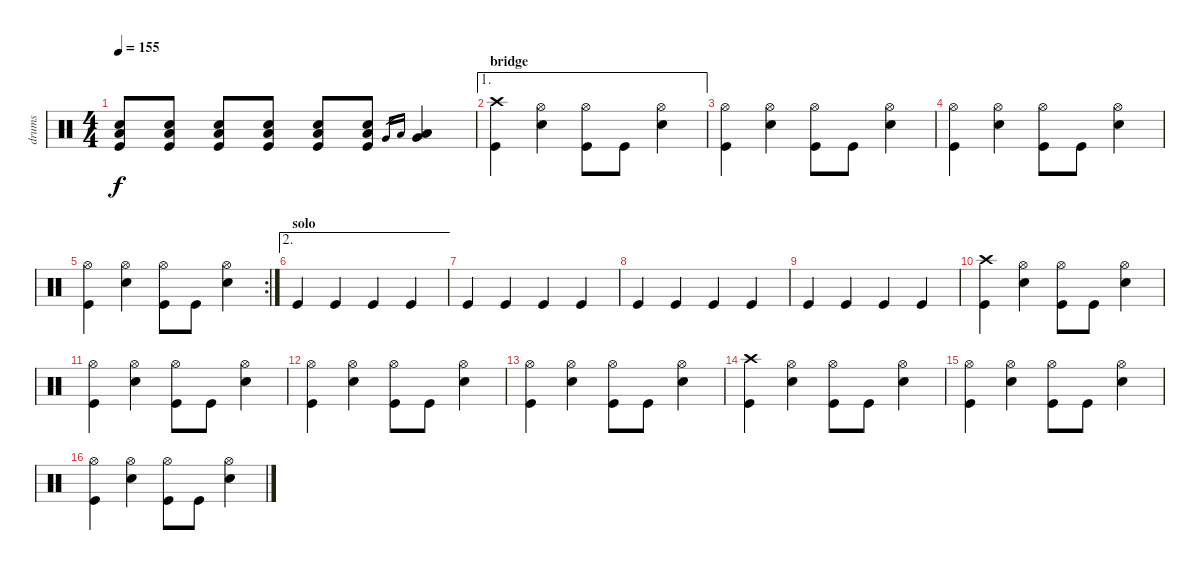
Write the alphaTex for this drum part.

\track ("drums" "drums") {instrument percussion}
\staff {score}
\articulation defaults
\ts (4 4)
\tempo 155
\clef neutral
\ks c
("Snare (hit) 2" "Low Floor Tom (hit)" "Kick (hit)").8{dy f} ("Snare (hit) 2" "Low Floor Tom (hit)" "Kick (hit)").8 ("Snare (hit) 2" "Low Floor Tom (hit)" "Kick (hit)").8 ("Snare (hit) 2" "Low Floor Tom (hit)" "Kick (hit)").8 ("Snare (hit) 2" "Low Floor Tom (hit)" "Kick (hit)").8 ("Snare (hit) 2" "Low Floor Tom (hit)" "Kick (hit)").8 "Very Low Tom (hit)".16{gr} "Low Floor Tom (hit)".16{gr} ("Very Low Tom (hit)" "Low Floor Tom (hit)").4 |
\ae 1
\section ("" "bridge")
("Crash high (hit)" "Kick (hit)").4 ("Hi-Hat (open)" "Snare (hit) 2").4 ("Hi-Hat (open)" "Kick (hit)").8 "Kick (hit)".8 ("Hi-Hat (open)" "Snare (hit) 2").4 |
("Hi-Hat (open)" "Kick (hit)").4 ("Hi-Hat (open)" "Snare (hit) 2").4 ("Hi-Hat (open)" "Kick (hit)").8 "Kick (hit)".8 ("Hi-Hat (open)" "Snare (hit) 2").4 |
("Hi-Hat (open)" "Kick (hit)").4 ("Hi-Hat (open)" "Snare (hit) 2").4 ("Hi-Hat (open)" "Kick (hit)").8 "Kick (hit)".8 ("Hi-Hat (open)" "Snare (hit) 2").4 |
\rc 2
("Hi-Hat (open)" "Kick (hit)").4 ("Hi-Hat (open)" "Snare (hit) 2").4 ("Hi-Hat (open)" "Kick (hit)").8 "Kick (hit)".8 ("Hi-Hat (open)" "Snare (hit) 2").4 |
\ae 2
\section ("" "solo")
"Kick (hit)".4 "Kick (hit)".4 "Kick (hit)".4 "Kick (hit)".4 |
"Kick (hit)".4 "Kick (hit)".4 "Kick (hit)".4 "Kick (hit)".4 |
"Kick (hit)".4 "Kick (hit)".4 "Kick (hit)".4 "Kick (hit)".4 |
"Kick (hit)".4 "Kick (hit)".4 "Kick (hit)".4 "Kick (hit)".4 |
("Crash high (hit)" "Kick (hit)").4 ("Hi-Hat (open)" "Snare (hit) 2").4 ("Hi-Hat (open)" "Kick (hit)").8 "Kick (hit)".8 ("Hi-Hat (open)" "Snare (hit) 2").4 |
("Hi-Hat (open)" "Kick (hit)").4 ("Hi-Hat (open)" "Snare (hit) 2").4 ("Hi-Hat (open)" "Kick (hit)").8 "Kick (hit)".8 ("Hi-Hat (open)" "Snare (hit) 2").4 |
("Hi-Hat (open)" "Kick (hit)").4 ("Hi-Hat (open)" "Snare (hit) 2").4 ("Hi-Hat (open)" "Kick (hit)").8 "Kick (hit)".8 ("Hi-Hat (open)" "Snare (hit) 2").4 |
("Hi-Hat (open)" "Kick (hit)").4 ("Hi-Hat (open)" "Snare (hit) 2").4 ("Hi-Hat (open)" "Kick (hit)").8 "Kick (hit)".8 ("Hi-Hat (open)" "Snare (hit) 2").4 |
("Crash high (hit)" "Kick (hit)").4 ("Hi-Hat (open)" "Snare (hit) 2").4 ("Hi-Hat (open)" "Kick (hit)").8 "Kick (hit)".8 ("Hi-Hat (open)" "Snare (hit) 2").4 |
("Hi-Hat (open)" "Kick (hit)").4 ("Hi-Hat (open)" "Snare (hit) 2").4 ("Hi-Hat (open)" "Kick (hit)").8 "Kick (hit)".8 ("Hi-Hat (open)" "Snare (hit) 2").4 |
("Hi-Hat (open)" "Kick (hit)").4 ("Hi-Hat (open)" "Snare (hit) 2").4 ("Hi-Hat (open)" "Kick (hit)").8 "Kick (hit)".8 ("Hi-Hat (open)" "Snare (hit) 2").4
